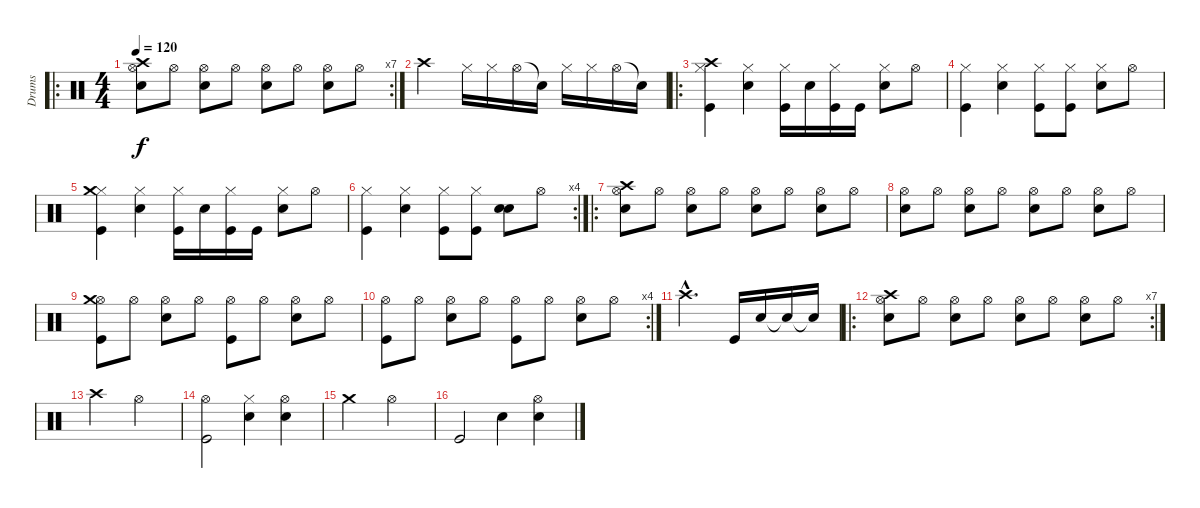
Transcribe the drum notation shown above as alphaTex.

\track ("Drums" "Drums") {instrument percussion}
\staff {score}
\articulation defaults
\ro
\rc 7
\ts (4 4)
\tempo 120
\clef neutral
\ks c
("Hi-Hat (open)" "Crash high (hit)" "Snare (hit) 2").8{dy f} "Hi-Hat (open)".8 ("Hi-Hat (open)" "Snare (hit) 2").8 "Hi-Hat (open)".8 ("Hi-Hat (open)" "Snare (hit) 2").8 "Hi-Hat (open)".8 ("Hi-Hat (open)" "Snare (hit) 2").8 "Hi-Hat (open)".8 |
"Crash high (hit)".2 "Hi-Hat (closed)".16 "Hi-Hat (closed)".16 "Hi-Hat (open)".16 "Snare (hit)"{t}.16 "Hi-Hat (closed)".16 "Hi-Hat (closed)".16 "Hi-Hat (open)".16 "Snare (hit)"{t}.16 |
\ro
("Hi-Hat (closed)" "Crash high (hit)" "Kick (hit)").4 ("Hi-Hat (closed)" "Snare (hit) 2").4 ("Hi-Hat (closed)" "Kick (hit)").16 "Snare (hit) 2".16 ("Hi-Hat (closed)" "Kick (hit)").16 "Kick (hit)".16 ("Hi-Hat (closed)" "Snare (hit) 2").8 "Hi-Hat (open)".8 |
("Hi-Hat (closed)" "Kick (hit)").4 ("Hi-Hat (closed)" "Snare (hit) 2").4 ("Hi-Hat (closed)" "Kick (hit)").8 ("Hi-Hat (closed)" "Kick (hit)").8 ("Hi-Hat (closed)" "Snare (hit) 2").8 "Hi-Hat (open)".8 |
("Hi-Hat (closed)" "Crash medium (hit)" "Kick (hit)").4 ("Hi-Hat (closed)" "Snare (hit) 2").4 ("Hi-Hat (closed)" "Kick (hit)").16 "Snare (hit) 2".16 ("Hi-Hat (closed)" "Kick (hit)").16 "Kick (hit)".16 ("Hi-Hat (closed)" "Snare (hit) 2").8 "Hi-Hat (open)".8 |
\rc 4
("Hi-Hat (closed)" "Kick (hit)").4 ("Hi-Hat (closed)" "Snare (hit) 2").4 ("Hi-Hat (closed)" "Kick (hit)").8 ("Hi-Hat (closed)" "Kick (hit)").8 ("Snare (hit)" "Snare (hit) 2").8 "Hi-Hat (open)".8 |
\ro
("Hi-Hat (open)" "Crash high (hit)" "Snare (hit) 2").8 "Hi-Hat (open)".8 ("Hi-Hat (open)" "Snare (hit) 2").8 "Hi-Hat (open)".8 ("Hi-Hat (open)" "Snare (hit) 2").8 "Hi-Hat (open)".8 ("Hi-Hat (open)" "Snare (hit) 2").8 "Hi-Hat (open)".8 |
("Hi-Hat (open)" "Snare (hit) 2").8 "Hi-Hat (open)".8 ("Hi-Hat (open)" "Snare (hit) 2").8 "Hi-Hat (open)".8 ("Hi-Hat (open)" "Snare (hit) 2").8 "Hi-Hat (open)".8 ("Hi-Hat (open)" "Snare (hit) 2").8 "Hi-Hat (open)".8 |
("Hi-Hat (open)" "Crash medium (hit)" "Kick (hit)").8 "Hi-Hat (open)".8 ("Hi-Hat (open)" "Snare (hit) 2").8 "Hi-Hat (open)".8 ("Hi-Hat (open)" "Kick (hit)").8 "Hi-Hat (open)".8 ("Hi-Hat (open)" "Snare (hit) 2").8 "Hi-Hat (open)".8 |
\rc 4
("Hi-Hat (open)" "Kick (hit)").8 "Hi-Hat (open)".8 ("Hi-Hat (open)" "Snare (hit) 2").8 "Hi-Hat (open)".8 ("Hi-Hat (open)" "Kick (hit)").8 "Hi-Hat (open)".8 ("Hi-Hat (open)" "Snare (hit) 2").8 "Hi-Hat (open)".8 |
"Crash high (hit)"{hac}.2{d} "Kick (hit)".16 "Snare (hit) 2".16 "Snare (hit)"{t}.16 "Snare (hit)"{t}.16 |
\ro
\rc 7
("Hi-Hat (open)" "Crash high (hit)" "Snare (hit) 2").8 "Hi-Hat (open)".8 ("Hi-Hat (open)" "Snare (hit) 2").8 "Hi-Hat (open)".8 ("Hi-Hat (open)" "Snare (hit) 2").8 "Hi-Hat (open)".8 ("Hi-Hat (open)" "Snare (hit) 2").8 "Hi-Hat (open)".8 |
"Crash high (hit)".2 "Hi-Hat (open)".2 |
("Hi-Hat (open)" "Kick (hit)").2 ("Hi-Hat (closed)" "Snare (hit) 2").4 ("Hi-Hat (open)" "Electric Snare (hit)").4 |
"Crash medium (hit)".2 "Hi-Hat (open)".2 |
"Kick (hit)".2 "Snare (hit) 2".4 ("Hi-Hat (open)" "Electric Snare (hit)").4
